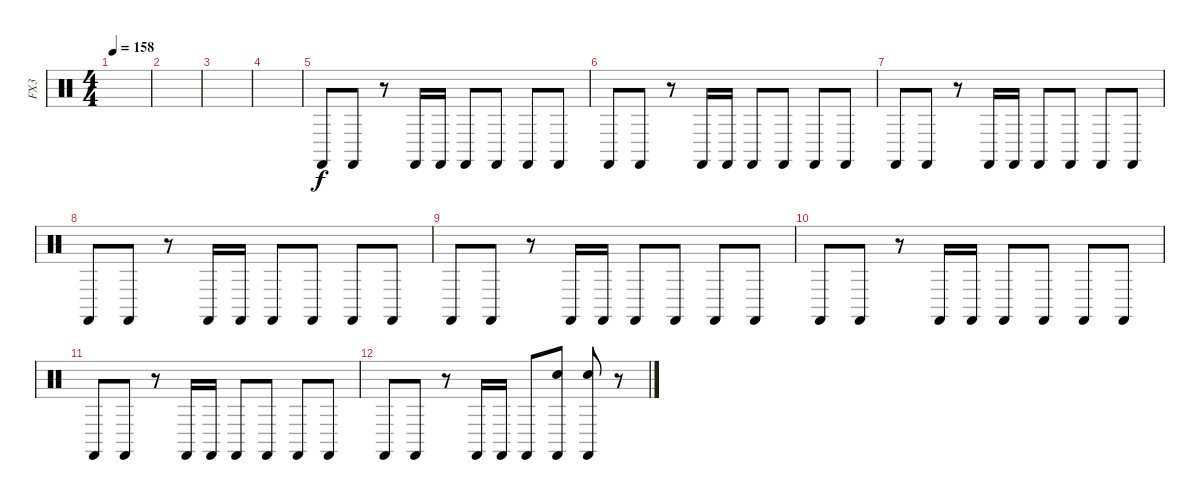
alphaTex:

\track ("FX3" "FX3") {instrument percussion}
\staff {score}
\articulation defaults
\ts (4 4)
\tempo 158
\clef neutral
\ks c
|
|
|
|
"Castanets (hit)".8 "Castanets (hit)".8 r.8 "Castanets (hit)".16 "Castanets (hit)".16 "Castanets (hit)".8 "Castanets (hit)".8 "Castanets (hit)".8 "Castanets (hit)".8 |
"Castanets (hit)".8 "Castanets (hit)".8 r.8 "Castanets (hit)".16 "Castanets (hit)".16 "Castanets (hit)".8 "Castanets (hit)".8 "Castanets (hit)".8 "Castanets (hit)".8 |
"Castanets (hit)".8 "Castanets (hit)".8 r.8 "Castanets (hit)".16 "Castanets (hit)".16 "Castanets (hit)".8 "Castanets (hit)".8 "Castanets (hit)".8 "Castanets (hit)".8 |
"Castanets (hit)".8 "Castanets (hit)".8 r.8 "Castanets (hit)".16 "Castanets (hit)".16 "Castanets (hit)".8 "Castanets (hit)".8 "Castanets (hit)".8 "Castanets (hit)".8 |
"Castanets (hit)".8 "Castanets (hit)".8 r.8 "Castanets (hit)".16 "Castanets (hit)".16 "Castanets (hit)".8 "Castanets (hit)".8 "Castanets (hit)".8 "Castanets (hit)".8 |
"Castanets (hit)".8 "Castanets (hit)".8 r.8 "Castanets (hit)".16 "Castanets (hit)".16 "Castanets (hit)".8 "Castanets (hit)".8 "Castanets (hit)".8 "Castanets (hit)".8 |
"Castanets (hit)".8 "Castanets (hit)".8 r.8 "Castanets (hit)".16 "Castanets (hit)".16 "Castanets (hit)".8 "Castanets (hit)".8 "Castanets (hit)".8 "Castanets (hit)".8 |
"Castanets (hit)".8 "Castanets (hit)".8 r.8 "Castanets (hit)".16 "Castanets (hit)".16 "Castanets (hit)".8 ("Hand Clap (hit)" "Castanets (hit)").8 ("Hand Clap (hit)" "Castanets (hit)").8 r.8
